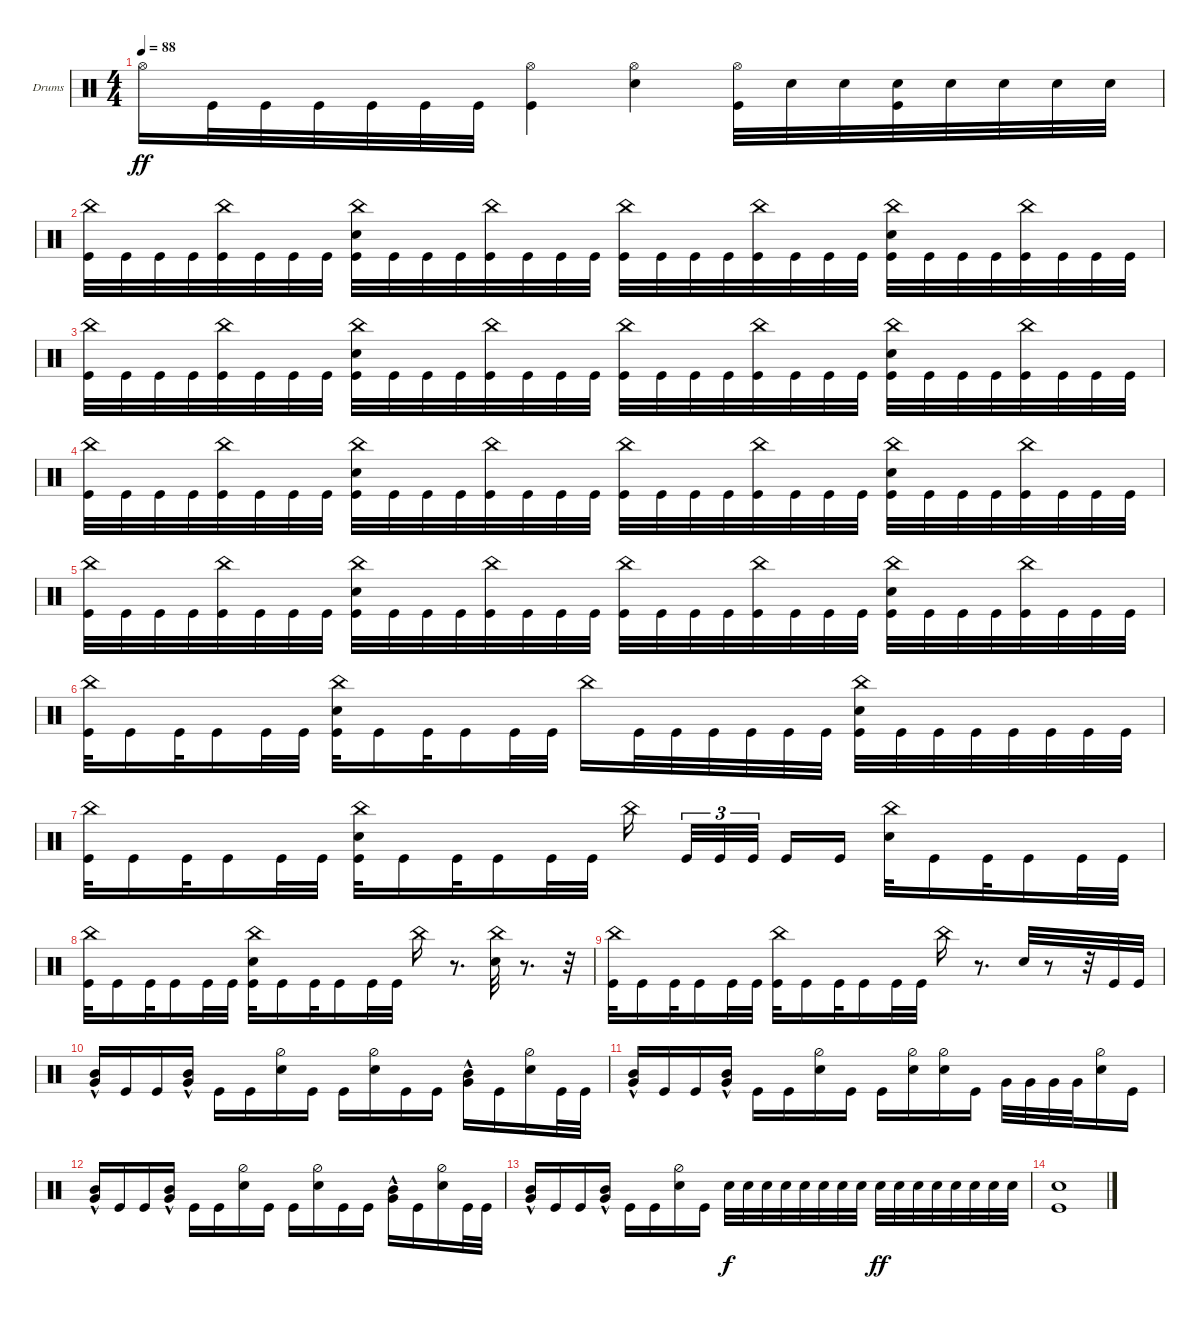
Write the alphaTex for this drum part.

\defaultSystemsLayout 4
\bracketExtendMode groupsimilarinstruments
\firstSystemTrackNameOrientation horizontal
\otherSystemsTrackNameOrientation horizontal
\track ("Drumkit" "Drums") {instrument percussion}
\staff {score}
\articulation defaults
\ts (4 4)
\tempo 88
\clef neutral
\ks c "Hi-Hat (open)".16{dy ff} "Kick (hit)".32 "Kick (hit)".32 "Kick (hit)".32 "Kick (hit)".32 "Kick (hit)".32 "Kick (hit)".32
("Kick (hit)" "Hi-Hat (open)").4 ("Snare (hit) 2" "Hi-Hat (open)").4 ("Hi-Hat (open)" "Kick (hit)").32 "Snare (hit) 2".32 "Snare (hit) 2".32 ("Kick (hit)" "Snare (hit) 2").32 "Snare (hit) 2".32 "Snare (hit) 2".32 "Snare (hit) 2".32 "Snare (hit) 2".32 |
("Kick (hit)" "China (hit)").32 "Kick (hit)".32 "Kick (hit)".32 "Kick (hit)".32 ("Kick (hit)" "China (hit)").32 "Kick (hit)".32 "Kick (hit)".32 "Kick (hit)".32 ("Kick (hit)" "China (hit)" "Snare (hit) 2").32 "Kick (hit)".32 "Kick (hit)".32 "Kick (hit)".32 ("Kick (hit)" "China (hit)").32 "Kick (hit)".32 "Kick (hit)".32 "Kick (hit)".32 ("Kick (hit)" "China (hit)").32 "Kick (hit)".32 "Kick (hit)".32 "Kick (hit)".32 ("Kick (hit)" "China (hit)").32 "Kick (hit)".32 "Kick (hit)".32 "Kick (hit)".32 ("Kick (hit)" "China (hit)" "Snare (hit) 2").32 "Kick (hit)".32 "Kick (hit)".32 "Kick (hit)".32 ("Kick (hit)" "China (hit)").32 "Kick (hit)".32 "Kick (hit)".32 "Kick (hit)".32 |
("Kick (hit)" "China (hit)").32 "Kick (hit)".32 "Kick (hit)".32 "Kick (hit)".32 ("Kick (hit)" "China (hit)").32 "Kick (hit)".32 "Kick (hit)".32 "Kick (hit)".32 ("Kick (hit)" "China (hit)" "Snare (hit) 2").32 "Kick (hit)".32 "Kick (hit)".32 "Kick (hit)".32 ("Kick (hit)" "China (hit)").32 "Kick (hit)".32 "Kick (hit)".32 "Kick (hit)".32 ("Kick (hit)" "China (hit)").32 "Kick (hit)".32 "Kick (hit)".32 "Kick (hit)".32 ("Kick (hit)" "China (hit)").32 "Kick (hit)".32 "Kick (hit)".32 "Kick (hit)".32 ("Kick (hit)" "China (hit)" "Snare (hit) 2").32 "Kick (hit)".32 "Kick (hit)".32 "Kick (hit)".32 ("Kick (hit)" "China (hit)").32 "Kick (hit)".32 "Kick (hit)".32 "Kick (hit)".32 |
("Kick (hit)" "China (hit)").32 "Kick (hit)".32 "Kick (hit)".32 "Kick (hit)".32 ("Kick (hit)" "China (hit)").32 "Kick (hit)".32 "Kick (hit)".32 "Kick (hit)".32 ("Kick (hit)" "China (hit)" "Snare (hit) 2").32 "Kick (hit)".32 "Kick (hit)".32 "Kick (hit)".32 ("Kick (hit)" "China (hit)").32 "Kick (hit)".32 "Kick (hit)".32 "Kick (hit)".32 ("Kick (hit)" "China (hit)").32 "Kick (hit)".32 "Kick (hit)".32 "Kick (hit)".32 ("Kick (hit)" "China (hit)").32 "Kick (hit)".32 "Kick (hit)".32 "Kick (hit)".32 ("Kick (hit)" "China (hit)" "Snare (hit) 2").32 "Kick (hit)".32 "Kick (hit)".32 "Kick (hit)".32 ("Kick (hit)" "China (hit)").32 "Kick (hit)".32 "Kick (hit)".32 "Kick (hit)".32 |
("Kick (hit)" "China (hit)").32 "Kick (hit)".32 "Kick (hit)".32 "Kick (hit)".32 ("Kick (hit)" "China (hit)").32 "Kick (hit)".32 "Kick (hit)".32 "Kick (hit)".32 ("Kick (hit)" "China (hit)" "Snare (hit) 2").32 "Kick (hit)".32 "Kick (hit)".32 "Kick (hit)".32 ("Kick (hit)" "China (hit)").32 "Kick (hit)".32 "Kick (hit)".32 "Kick (hit)".32 ("Kick (hit)" "China (hit)").32 "Kick (hit)".32 "Kick (hit)".32 "Kick (hit)".32 ("Kick (hit)" "China (hit)").32 "Kick (hit)".32 "Kick (hit)".32 "Kick (hit)".32 ("Kick (hit)" "China (hit)" "Snare (hit) 2").32 "Kick (hit)".32 "Kick (hit)".32 "Kick (hit)".32 ("Kick (hit)" "China (hit)").32 "Kick (hit)".32 "Kick (hit)".32 "Kick (hit)".32 |
("Kick (hit)" "China (hit)").32 "Kick (hit)".16 "Kick (hit)".32 "Kick (hit)".16 "Kick (hit)".32 "Kick (hit)".32 ("Kick (hit)" "China (hit)" "Snare (hit) 2").32 "Kick (hit)".16 "Kick (hit)".32 "Kick (hit)".16 "Kick (hit)".32 "Kick (hit)".32 "China (hit)".16 "Kick (hit)".32 "Kick (hit)".32 "Kick (hit)".32 "Kick (hit)".32 "Kick (hit)".32 "Kick (hit)".32 ("Kick (hit)" "Snare (hit) 2" "China (hit)").32 "Kick (hit)".32 "Kick (hit)".32 "Kick (hit)".32 "Kick (hit)".32 "Kick (hit)".32 "Kick (hit)".32 "Kick (hit)".32 |
("Kick (hit)" "China (hit)").32 "Kick (hit)".16 "Kick (hit)".32 "Kick (hit)".16 "Kick (hit)".32 "Kick (hit)".32 ("Kick (hit)" "China (hit)" "Snare (hit) 2").32 "Kick (hit)".16 "Kick (hit)".32 "Kick (hit)".16 "Kick (hit)".32 "Kick (hit)".32 "China (hit)".16 "Kick (hit)".32{tu (3 2)} "Kick (hit)".32{tu (3 2)} "Kick (hit)".32{tu (3 2)} "Kick (hit)".16 "Kick (hit)".16 ("Snare (hit) 2" "China (hit)").32 "Kick (hit)".16 "Kick (hit)".32 "Kick (hit)".16 "Kick (hit)".32 "Kick (hit)".32 |
("Kick (hit)" "China (hit)").32 "Kick (hit)".16 "Kick (hit)".32 "Kick (hit)".16 "Kick (hit)".32 "Kick (hit)".32 ("Kick (hit)" "China (hit)" "Snare (hit) 2").32 "Kick (hit)".16 "Kick (hit)".32 "Kick (hit)".16 "Kick (hit)".32 "Kick (hit)".32 "China (hit)".16 r.8{d} ("Snare (hit) 2" "China (hit)").32 r.8{d} r.32 |
("Kick (hit)" "China (hit)").32 "Kick (hit)".16 "Kick (hit)".32 "Kick (hit)".16 "Kick (hit)".32 "Kick (hit)".32 ("Kick (hit)" "China (hit)").32 "Kick (hit)".16 "Kick (hit)".32 "Kick (hit)".16 "Kick (hit)".32 "Kick (hit)".32 "China (hit)".16 r.8{d} "Snare (hit) 2".32 r.8 r.32 "Kick (hit)".32 "Kick (hit)".32 |
("Very Low Tom (hit)"{hac} "Mid Tom (hit)"{hac}).16 "Kick (hit)".16 "Kick (hit)".16 ("Very Low Tom (hit)"{hac} "Mid Tom (hit)"{hac}).16 "Kick (hit)".16 "Kick (hit)".16 ("Snare (hit) 2" "Hi-Hat (half)").16 "Kick (hit)".16 "Kick (hit)".16 ("Snare (hit) 2" "Hi-Hat (half)").16 "Kick (hit)".16 "Kick (hit)".16 ("Very Low Tom (hit)"{hac} "Mid Tom (hit)"{hac}).16 "Kick (hit)".16 ("Snare (hit) 2" "Hi-Hat (half)").16 "Kick (hit)".32 "Kick (hit)".32 |
("Very Low Tom (hit)"{hac} "Mid Tom (hit)"{hac}).16 "Kick (hit)".16 "Kick (hit)".16 ("Very Low Tom (hit)"{hac} "Mid Tom (hit)"{hac}).16 "Kick (hit)".16 "Kick (hit)".16 ("Snare (hit) 2" "Hi-Hat (half)").16 "Kick (hit)".16 "Kick (hit)".16 ("Snare (hit) 2" "Hi-Hat (half)").16 ("Snare (hit) 2" "Hi-Hat (half)").16 "Kick (hit)".16 "Very Low Tom (hit)".32 "Very Low Tom (hit)".32 "Very Low Tom (hit)".32 "Very Low Tom (hit)".32 ("Snare (hit) 2" "Hi-Hat (half)").16 "Kick (hit)".16 |
("Very Low Tom (hit)"{hac} "Mid Tom (hit)"{hac}).16 "Kick (hit)".16 "Kick (hit)".16 ("Very Low Tom (hit)"{hac} "Mid Tom (hit)"{hac}).16 "Kick (hit)".16 "Kick (hit)".16 ("Snare (hit) 2" "Hi-Hat (half)").16 "Kick (hit)".16 "Kick (hit)".16 ("Snare (hit) 2" "Hi-Hat (half)").16 "Kick (hit)".16 "Kick (hit)".16 ("Very Low Tom (hit)"{hac} "Mid Tom (hit)"{hac}).16 "Kick (hit)".16 ("Snare (hit) 2" "Hi-Hat (half)").16 "Kick (hit)".32 "Kick (hit)".32 |
("Very Low Tom (hit)"{hac} "Mid Tom (hit)"{hac}).16 "Kick (hit)".16 "Kick (hit)".16 ("Very Low Tom (hit)"{hac} "Mid Tom (hit)"{hac}).16 "Kick (hit)".16 "Kick (hit)".16 ("Snare (hit) 2" "Hi-Hat (half)").16 "Kick (hit)".16 "Snare (hit) 2".32{dy f} "Snare (hit) 2".32 "Snare (hit) 2".32 "Snare (hit) 2".32 "Snare (hit) 2".32 "Snare (hit) 2".32 "Snare (hit) 2".32 "Snare (hit) 2".32 "Snare (hit) 2".32{dy ff} "Snare (hit) 2".32 "Snare (hit) 2".32 "Snare (hit) 2".32 "Snare (hit) 2".32 "Snare (hit) 2".32 "Snare (hit) 2".32 "Snare (hit) 2".32 |
("Snare (hit) 2" "Kick (hit)").1
